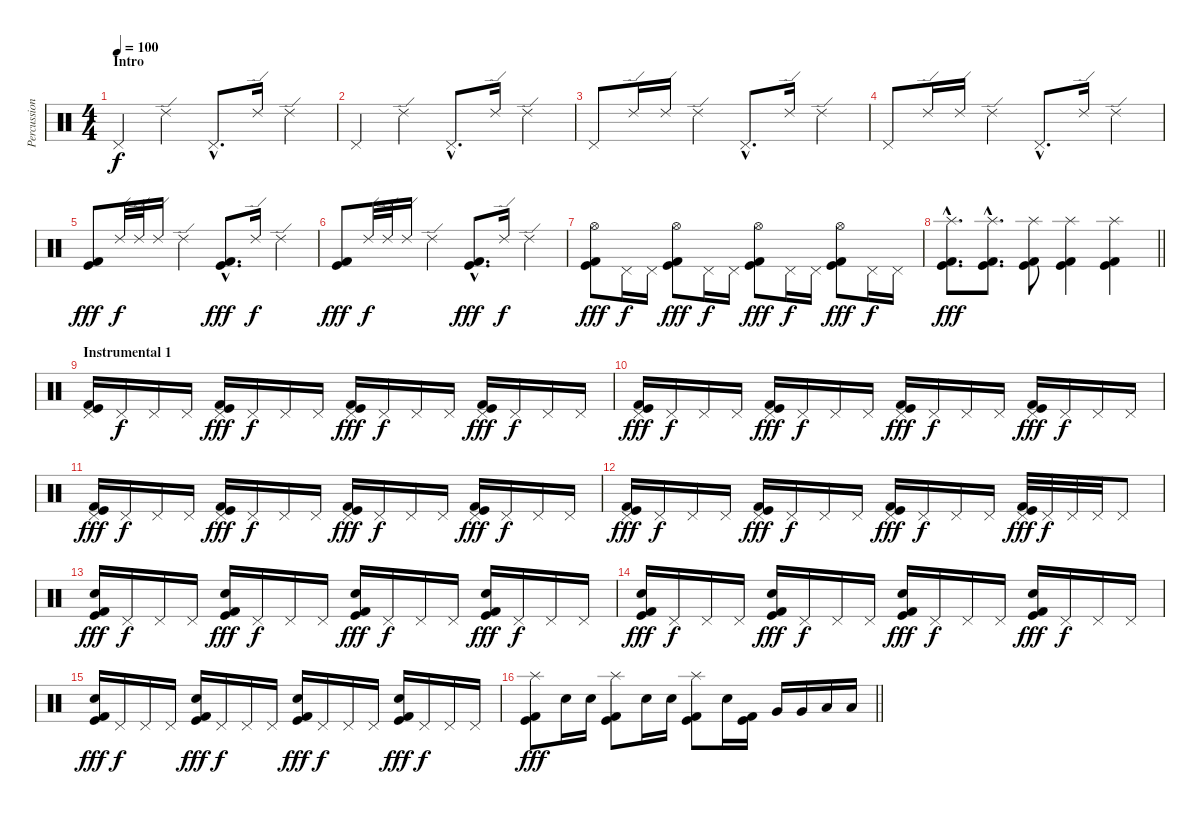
\track ("Percussion" "Percussion") {instrument percussion}
\staff {score}
\articulation defaults
\ts (4 4)
\section ("" "Intro")
\tempo 100
\clef neutral
\ks c "Pedal Hi-Hat (hit)".4{dy f} "Ride (edge) 2".4 "Pedal Hi-Hat (hit)"{hac}.8{d} "Ride (edge) 2".16 "Ride (edge) 2".4
|
"Pedal Hi-Hat (hit)".4 "Ride (edge) 2".4 "Pedal Hi-Hat (hit)"{hac}.8{d} "Ride (edge) 2".16 "Ride (edge) 2".4 |
"Pedal Hi-Hat (hit)".8 "Ride (edge) 2".16 "Ride (edge) 2".16 "Ride (edge) 2".4 "Pedal Hi-Hat (hit)"{hac}.8{d} "Ride (edge) 2".16 "Ride (edge) 2".4 |
"Pedal Hi-Hat (hit)".8 "Ride (edge) 2".16 "Ride (edge) 2".16 "Ride (edge) 2".4 "Pedal Hi-Hat (hit)"{hac}.8{d} "Ride (edge) 2".16 "Ride (edge) 2".4 |
("Kick (hit)" "Kick (hit) 2").8{dy fff} "Ride (edge) 2".32{dy f} "Ride (edge) 2".32 "Ride (edge) 2".16 "Ride (edge) 2".4 ("Kick (hit)"{hac} "Kick (hit) 2"{hac}).8{d dy fff} "Ride (edge) 2".16{dy f} "Ride (edge) 2".4 |
("Kick (hit)" "Kick (hit) 2").8{dy fff} "Ride (edge) 2".32{dy f} "Ride (edge) 2".32 "Ride (edge) 2".16 "Ride (edge) 2".4 ("Kick (hit)"{hac} "Kick (hit) 2"{hac}).8{d dy fff} "Ride (edge) 2".16{dy f} "Ride (edge) 2".4 |
("Hi-Hat (open)" "Kick (hit)" "Kick (hit) 2").8{dy fff} "Pedal Hi-Hat (hit)".16{dy f} "Pedal Hi-Hat (hit)".16 ("Hi-Hat (open)" "Kick (hit)" "Kick (hit) 2").8{dy fff} "Pedal Hi-Hat (hit)".16{dy f} "Pedal Hi-Hat (hit)".16 ("Hi-Hat (open)" "Kick (hit)" "Kick (hit) 2").8{dy fff} "Pedal Hi-Hat (hit)".16{dy f} "Pedal Hi-Hat (hit)".16 ("Hi-Hat (open)" "Kick (hit)" "Kick (hit) 2").8{dy fff} "Pedal Hi-Hat (hit)".16{dy f} "Pedal Hi-Hat (hit)".16 |
\barLineRight lightlight
("Splash (hit)"{hac} "Kick (hit)"{hac} "Kick (hit) 2"{hac}).8{d dy fff} ("Splash (hit)"{hac} "Kick (hit)"{hac} "Kick (hit) 2"{hac}).8{d} ("Splash (hit)" "Kick (hit)" "Kick (hit) 2").8 ("Splash (hit)" "Kick (hit)" "Kick (hit) 2").4 ("Splash (hit)" "Kick (hit)" "Kick (hit) 2").4 |
\section ("" "Instrumental 1")
("Pedal Hi-Hat (hit)" "Kick (hit)" "Kick (hit) 2").16 "Pedal Hi-Hat (hit)".16{dy f} "Pedal Hi-Hat (hit)".16 "Pedal Hi-Hat (hit)".16 ("Pedal Hi-Hat (hit)" "Kick (hit)" "Kick (hit) 2").16{dy fff} "Pedal Hi-Hat (hit)".16{dy f} "Pedal Hi-Hat (hit)".16 "Pedal Hi-Hat (hit)".16 ("Pedal Hi-Hat (hit)" "Kick (hit)" "Kick (hit) 2").16{dy fff} "Pedal Hi-Hat (hit)".16{dy f} "Pedal Hi-Hat (hit)".16 "Pedal Hi-Hat (hit)".16 ("Pedal Hi-Hat (hit)" "Kick (hit)" "Kick (hit) 2").16{dy fff} "Pedal Hi-Hat (hit)".16{dy f} "Pedal Hi-Hat (hit)".16 "Pedal Hi-Hat (hit)".16 |
("Pedal Hi-Hat (hit)" "Kick (hit)" "Kick (hit) 2").16{dy fff} "Pedal Hi-Hat (hit)".16{dy f} "Pedal Hi-Hat (hit)".16 "Pedal Hi-Hat (hit)".16 ("Pedal Hi-Hat (hit)" "Kick (hit)" "Kick (hit) 2").16{dy fff} "Pedal Hi-Hat (hit)".16{dy f} "Pedal Hi-Hat (hit)".16 "Pedal Hi-Hat (hit)".16 ("Pedal Hi-Hat (hit)" "Kick (hit)" "Kick (hit) 2").16{dy fff} "Pedal Hi-Hat (hit)".16{dy f} "Pedal Hi-Hat (hit)".16 "Pedal Hi-Hat (hit)".16 ("Pedal Hi-Hat (hit)" "Kick (hit)" "Kick (hit) 2").16{dy fff} "Pedal Hi-Hat (hit)".16{dy f} "Pedal Hi-Hat (hit)".16 "Pedal Hi-Hat (hit)".16 |
("Pedal Hi-Hat (hit)" "Kick (hit)" "Kick (hit) 2").16{dy fff} "Pedal Hi-Hat (hit)".16{dy f} "Pedal Hi-Hat (hit)".16 "Pedal Hi-Hat (hit)".16 ("Pedal Hi-Hat (hit)" "Kick (hit)" "Kick (hit) 2").16{dy fff} "Pedal Hi-Hat (hit)".16{dy f} "Pedal Hi-Hat (hit)".16 "Pedal Hi-Hat (hit)".16 ("Pedal Hi-Hat (hit)" "Kick (hit)" "Kick (hit) 2").16{dy fff} "Pedal Hi-Hat (hit)".16{dy f} "Pedal Hi-Hat (hit)".16 "Pedal Hi-Hat (hit)".16 ("Pedal Hi-Hat (hit)" "Kick (hit)" "Kick (hit) 2").16{dy fff} "Pedal Hi-Hat (hit)".16{dy f} "Pedal Hi-Hat (hit)".16 "Pedal Hi-Hat (hit)".16 |
("Pedal Hi-Hat (hit)" "Kick (hit)" "Kick (hit) 2").16{dy fff} "Pedal Hi-Hat (hit)".16{dy f} "Pedal Hi-Hat (hit)".16 "Pedal Hi-Hat (hit)".16 ("Pedal Hi-Hat (hit)" "Kick (hit)" "Kick (hit) 2").16{dy fff} "Pedal Hi-Hat (hit)".16{dy f} "Pedal Hi-Hat (hit)".16 "Pedal Hi-Hat (hit)".16 ("Pedal Hi-Hat (hit)" "Kick (hit)" "Kick (hit) 2").16{dy fff} "Pedal Hi-Hat (hit)".16{dy f} "Pedal Hi-Hat (hit)".16 "Pedal Hi-Hat (hit)".16 ("Pedal Hi-Hat (hit)" "Kick (hit)" "Kick (hit) 2").32{dy fff} "Pedal Hi-Hat (hit)".32{dy f} "Pedal Hi-Hat (hit)".32 "Pedal Hi-Hat (hit)".32 "Pedal Hi-Hat (hit)".8 |
("Snare (hit) 2" "Kick (hit)" "Kick (hit) 2").16{dy fff} "Pedal Hi-Hat (hit)".16{dy f} "Pedal Hi-Hat (hit)".16 "Pedal Hi-Hat (hit)".16 ("Snare (hit) 2" "Kick (hit)" "Kick (hit) 2").16{dy fff} "Pedal Hi-Hat (hit)".16{dy f} "Pedal Hi-Hat (hit)".16 "Pedal Hi-Hat (hit)".16 ("Snare (hit) 2" "Kick (hit)" "Kick (hit) 2").16{dy fff} "Pedal Hi-Hat (hit)".16{dy f} "Pedal Hi-Hat (hit)".16 "Pedal Hi-Hat (hit)".16 ("Snare (hit) 2" "Kick (hit)" "Kick (hit) 2").16{dy fff} "Pedal Hi-Hat (hit)".16{dy f} "Pedal Hi-Hat (hit)".16 "Pedal Hi-Hat (hit)".16 |
("Snare (hit) 2" "Kick (hit)" "Kick (hit) 2").16{dy fff} "Pedal Hi-Hat (hit)".16{dy f} "Pedal Hi-Hat (hit)".16 "Pedal Hi-Hat (hit)".16 ("Snare (hit) 2" "Kick (hit)" "Kick (hit) 2").16{dy fff} "Pedal Hi-Hat (hit)".16{dy f} "Pedal Hi-Hat (hit)".16 "Pedal Hi-Hat (hit)".16 ("Snare (hit) 2" "Kick (hit)" "Kick (hit) 2").16{dy fff} "Pedal Hi-Hat (hit)".16{dy f} "Pedal Hi-Hat (hit)".16 "Pedal Hi-Hat (hit)".16 ("Snare (hit) 2" "Kick (hit)" "Kick (hit) 2").16{dy fff} "Pedal Hi-Hat (hit)".16{dy f} "Pedal Hi-Hat (hit)".16 "Pedal Hi-Hat (hit)".16 |
("Snare (hit) 2" "Kick (hit)" "Kick (hit) 2").16{dy fff} "Pedal Hi-Hat (hit)".16{dy f} "Pedal Hi-Hat (hit)".16 "Pedal Hi-Hat (hit)".16 ("Snare (hit) 2" "Kick (hit)" "Kick (hit) 2").16{dy fff} "Pedal Hi-Hat (hit)".16{dy f} "Pedal Hi-Hat (hit)".16 "Pedal Hi-Hat (hit)".16 ("Snare (hit) 2" "Kick (hit)" "Kick (hit) 2").16{dy fff} "Pedal Hi-Hat (hit)".16{dy f} "Pedal Hi-Hat (hit)".16 "Pedal Hi-Hat (hit)".16 ("Snare (hit) 2" "Kick (hit)" "Kick (hit) 2").16{dy fff} "Pedal Hi-Hat (hit)".16{dy f} "Pedal Hi-Hat (hit)".16 "Pedal Hi-Hat (hit)".16 |
\barLineRight lightlight
("Splash (hit)" "Kick (hit)" "Kick (hit) 2").8{dy fff} "Snare (hit) 2".16 "Snare (hit) 2".16 ("Splash (hit)" "Kick (hit)" "Kick (hit) 2").8 "Snare (hit) 2".16 "Snare (hit) 2".16 ("Splash (hit)" "Kick (hit)" "Kick (hit) 2").8 "Snare (hit) 2".16 ("Kick (hit)" "Kick (hit) 2").16 "Very Low Tom (hit)".16 "Very Low Tom (hit)".16 "Low Floor Tom (hit)".16 "Low Floor Tom (hit)".16
